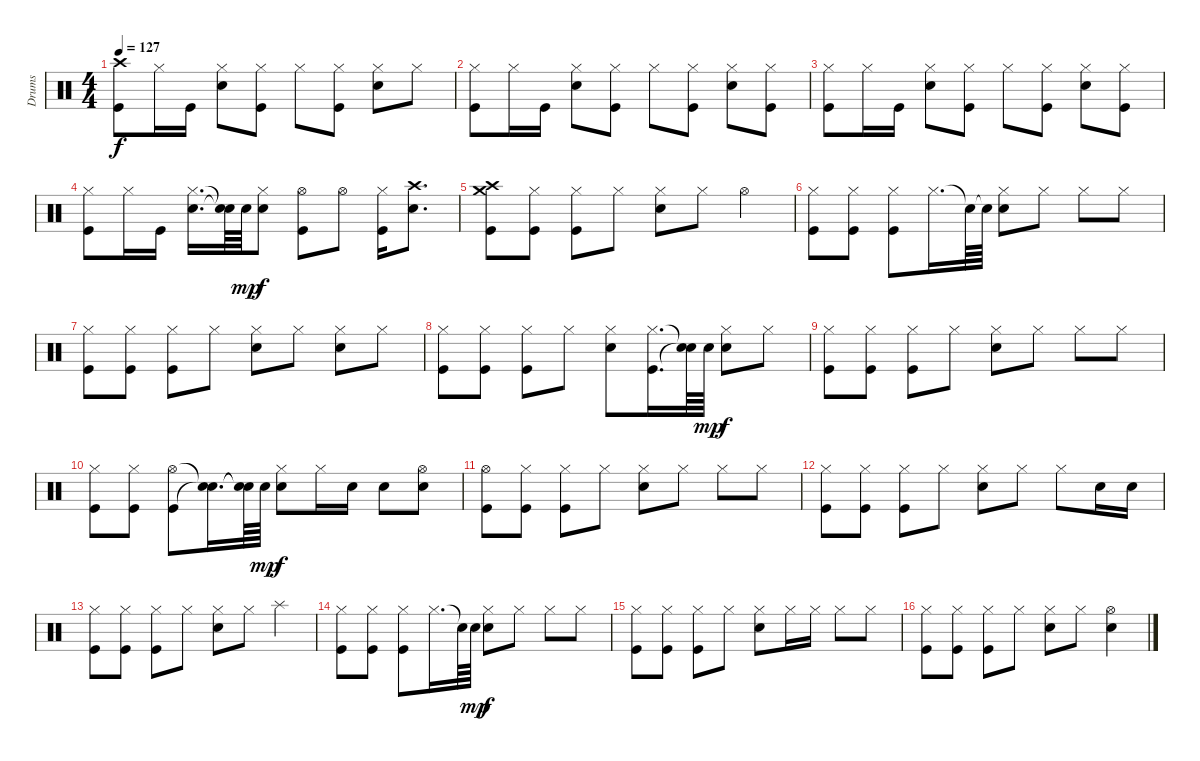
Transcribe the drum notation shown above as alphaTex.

\track ("Drums" "Drums") {instrument percussion}
\staff {score}
\articulation defaults
\ts (4 4)
\tempo 127
\clef neutral
\ks c
("Crash high (hit)" "Kick (hit)").8{dy f} "Hi-Hat (closed)".16 "Kick (hit)".16 ("Electric Snare (hit)" "Hi-Hat (closed)").8 ("Hi-Hat (closed)" "Kick (hit)").8 "Hi-Hat (closed)".8 ("Hi-Hat (closed)" "Kick (hit)").8 ("Electric Snare (hit)" "Hi-Hat (closed)").8 "Hi-Hat (closed)".8 |
("Hi-Hat (closed)" "Kick (hit)").8 "Hi-Hat (closed)".16 "Kick (hit)".16 ("Electric Snare (hit)" "Hi-Hat (closed)").8 ("Hi-Hat (closed)" "Kick (hit)").8 "Hi-Hat (closed)".8 ("Hi-Hat (closed)" "Kick (hit)").8 ("Electric Snare (hit)" "Hi-Hat (closed)").8 ("Hi-Hat (closed)" "Kick (hit)").8 |
("Hi-Hat (closed)" "Kick (hit)").8 "Hi-Hat (closed)".16 "Kick (hit)".16 ("Electric Snare (hit)" "Hi-Hat (closed)").8 ("Hi-Hat (closed)" "Kick (hit)").8 "Hi-Hat (closed)".8 ("Hi-Hat (closed)" "Kick (hit)").8 ("Electric Snare (hit)" "Hi-Hat (closed)").8 ("Hi-Hat (closed)" "Kick (hit)").8 |
("Hi-Hat (closed)" "Kick (hit)").8 "Hi-Hat (closed)".16 "Kick (hit)".16 ("Electric Snare (hit)" "Hi-Hat (closed)").16{d} ("Snare (hit)"{t} "Snare (hit)"{t}).64 "Electric Snare (hit)".64{dy mp} ("Electric Snare (hit)" "Hi-Hat (closed)").8{dy f} ("Hi-Hat (open)" "Kick (hit)").8 "Hi-Hat (open)".8 ("Hi-Hat (closed)" "Kick (hit)").16 ("Electric Snare (hit)" "Crash high (hit)").8{d} |
("Crash medium (hit)" "Crash high (hit)" "Kick (hit)").8 ("Hi-Hat (closed)" "Kick (hit)").8 ("Hi-Hat (closed)" "Kick (hit)").8 "Hi-Hat (closed)".8 ("Electric Snare (hit)" "Hi-Hat (closed)").8 "Hi-Hat (closed)".8 "Hi-Hat (open)".4 |
("Hi-Hat (closed)" "Kick (hit)").8 ("Hi-Hat (closed)" "Kick (hit)").8 ("Hi-Hat (closed)" "Kick (hit)").8 "Hi-Hat (closed)".16{d} "Snare (hit)"{t}.64 "Snare (hit)"{t}.64 ("Electric Snare (hit)" "Hi-Hat (closed)").8 "Hi-Hat (closed)".8 "Hi-Hat (closed)".8 "Hi-Hat (closed)".8 |
("Hi-Hat (closed)" "Kick (hit)").8 ("Hi-Hat (closed)" "Kick (hit)").8 ("Hi-Hat (closed)" "Kick (hit)").8 "Hi-Hat (closed)".8 ("Electric Snare (hit)" "Hi-Hat (closed)").8 "Hi-Hat (closed)".8 ("Electric Snare (hit)" "Hi-Hat (closed)").8 "Hi-Hat (closed)".8 |
("Hi-Hat (closed)" "Kick (hit)").8 ("Hi-Hat (closed)" "Kick (hit)").8 ("Hi-Hat (closed)" "Kick (hit)").8 "Hi-Hat (closed)".8 ("Electric Snare (hit)" "Hi-Hat (closed)").8 ("Hi-Hat (closed)" "Kick (hit)").16{d} ("Snare (hit)"{t} "Snare (hit)"{t}).64 "Electric Snare (hit)".64{dy mp} ("Electric Snare (hit)" "Hi-Hat (closed)").8{dy f} "Hi-Hat (closed)".8 |
("Hi-Hat (closed)" "Kick (hit)").8 ("Hi-Hat (closed)" "Kick (hit)").8 ("Hi-Hat (closed)" "Kick (hit)").8 "Hi-Hat (closed)".8 ("Electric Snare (hit)" "Hi-Hat (closed)").8 "Hi-Hat (closed)".8 "Hi-Hat (closed)".8 "Hi-Hat (closed)".8 |
("Hi-Hat (closed)" "Kick (hit)").8 ("Hi-Hat (closed)" "Kick (hit)").8 ("Hi-Hat (open)" "Kick (hit)").8 ("Snare (hit)"{t} "Snare (hit)"{t}).16{d} ("Snare (hit)"{t} "Snare (hit)"{t}).64 "Electric Snare (hit)".64{dy mp} ("Electric Snare (hit)" "Hi-Hat (closed)").8{dy f} "Hi-Hat (closed)".16 "Electric Snare (hit)".16 "Electric Snare (hit)".8 ("Electric Snare (hit)" "Hi-Hat (open)").8 |
("Hi-Hat (open)" "Kick (hit)").8 ("Hi-Hat (closed)" "Kick (hit)").8 ("Hi-Hat (closed)" "Kick (hit)").8 "Hi-Hat (closed)".8 ("Electric Snare (hit)" "Hi-Hat (closed)").8 "Hi-Hat (closed)".8 "Hi-Hat (closed)".8 "Hi-Hat (closed)".8 |
("Hi-Hat (closed)" "Kick (hit)").8 ("Hi-Hat (closed)" "Kick (hit)").8 ("Hi-Hat (closed)" "Kick (hit)").8 "Hi-Hat (closed)".8 ("Electric Snare (hit)" "Hi-Hat (closed)").8 "Hi-Hat (closed)".8 "Hi-Hat (closed)".8 "Electric Snare (hit)".16 "Electric Snare (hit)".16 |
("Hi-Hat (closed)" "Kick (hit)").8 ("Hi-Hat (closed)" "Kick (hit)").8 ("Hi-Hat (closed)" "Kick (hit)").8 "Hi-Hat (closed)".8 ("Electric Snare (hit)" "Hi-Hat (closed)").8 "Hi-Hat (closed)".8 "Splash (hit)".4 |
("Hi-Hat (closed)" "Kick (hit)").8 ("Hi-Hat (closed)" "Kick (hit)").8 ("Hi-Hat (closed)" "Kick (hit)").8 "Hi-Hat (closed)".16{d} "Snare (hit)"{t}.64 "Electric Snare (hit)".64{dy mp} ("Electric Snare (hit)" "Hi-Hat (closed)").8{dy f} "Hi-Hat (closed)".8 "Hi-Hat (closed)".8 "Hi-Hat (closed)".8 |
("Hi-Hat (closed)" "Kick (hit)").8 ("Hi-Hat (closed)" "Kick (hit)").8 ("Hi-Hat (closed)" "Kick (hit)").8 "Hi-Hat (closed)".8 ("Electric Snare (hit)" "Hi-Hat (closed)").8 "Hi-Hat (closed)".16 "Hi-Hat (closed)".16 "Hi-Hat (closed)".8 "Hi-Hat (closed)".8 |
("Hi-Hat (closed)" "Kick (hit)").8 ("Hi-Hat (closed)" "Kick (hit)").8 ("Hi-Hat (closed)" "Kick (hit)").8 "Hi-Hat (closed)".8 ("Electric Snare (hit)" "Hi-Hat (closed)").8 "Hi-Hat (closed)".8 ("Electric Snare (hit)" "Hi-Hat (open)").4
